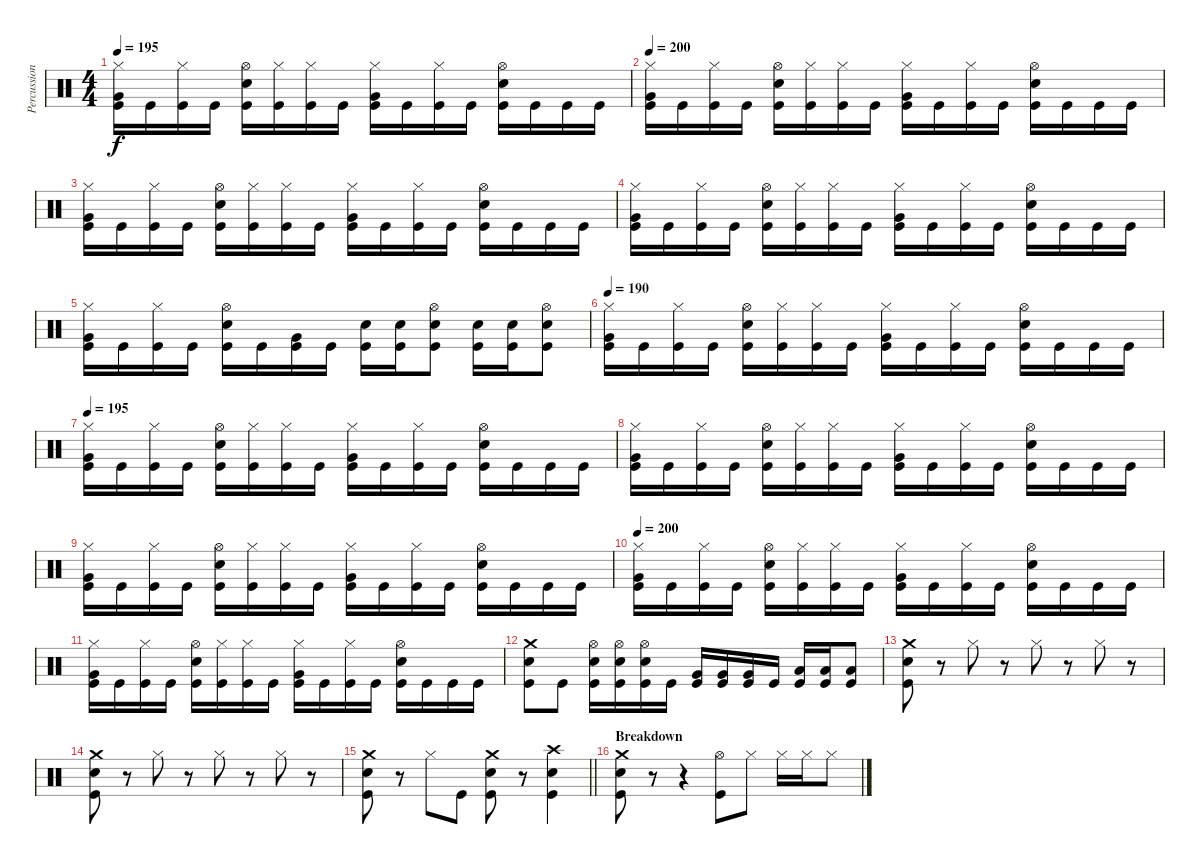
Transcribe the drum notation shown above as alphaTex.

\track ("Percussion" "Percussion") {instrument percussion}
\staff {score}
\articulation defaults
\ts (4 4)
\tempo 195
\clef neutral
\ks c
("Kick (hit)" "Very Low Tom (hit)" "Hi-Hat (closed)").16{dy f} "Kick (hit)".16 ("Kick (hit)" "Hi-Hat (closed)").16 "Kick (hit)".16 ("Kick (hit)" "Snare (hit) 2" "Hi-Hat (open)").16 ("Kick (hit)" "Hi-Hat (closed)").16 ("Kick (hit)" "Hi-Hat (closed)").16 "Kick (hit)".16 ("Kick (hit)" "Very Low Tom (hit)" "Hi-Hat (closed)").16 "Kick (hit)".16 ("Kick (hit)" "Hi-Hat (closed)").16 "Kick (hit)".16 ("Kick (hit)" "Snare (hit) 2" "Hi-Hat (open)").16 "Kick (hit)".16 "Kick (hit)".16 "Kick (hit)".16 |
\tempo 200
("Kick (hit)" "Very Low Tom (hit)" "Hi-Hat (closed)").16 "Kick (hit)".16 ("Kick (hit)" "Hi-Hat (closed)").16 "Kick (hit)".16 ("Kick (hit)" "Snare (hit) 2" "Hi-Hat (open)").16 ("Kick (hit)" "Hi-Hat (closed)").16 ("Kick (hit)" "Hi-Hat (closed)").16 "Kick (hit)".16 ("Kick (hit)" "Very Low Tom (hit)" "Hi-Hat (closed)").16 "Kick (hit)".16 ("Kick (hit)" "Hi-Hat (closed)").16 "Kick (hit)".16 ("Kick (hit)" "Snare (hit) 2" "Hi-Hat (open)").16 "Kick (hit)".16 "Kick (hit)".16 "Kick (hit)".16 |
("Kick (hit)" "Very Low Tom (hit)" "Hi-Hat (closed)").16 "Kick (hit)".16 ("Kick (hit)" "Hi-Hat (closed)").16 "Kick (hit)".16 ("Kick (hit)" "Snare (hit) 2" "Hi-Hat (open)").16 ("Kick (hit)" "Hi-Hat (closed)").16 ("Kick (hit)" "Hi-Hat (closed)").16 "Kick (hit)".16 ("Kick (hit)" "Very Low Tom (hit)" "Hi-Hat (closed)").16 "Kick (hit)".16 ("Kick (hit)" "Hi-Hat (closed)").16 "Kick (hit)".16 ("Kick (hit)" "Snare (hit) 2" "Hi-Hat (open)").16 "Kick (hit)".16 "Kick (hit)".16 "Kick (hit)".16 |
("Kick (hit)" "Very Low Tom (hit)" "Hi-Hat (closed)").16 "Kick (hit)".16 ("Kick (hit)" "Hi-Hat (closed)").16 "Kick (hit)".16 ("Kick (hit)" "Snare (hit) 2" "Hi-Hat (open)").16 ("Kick (hit)" "Hi-Hat (closed)").16 ("Kick (hit)" "Hi-Hat (closed)").16 "Kick (hit)".16 ("Kick (hit)" "Very Low Tom (hit)" "Hi-Hat (closed)").16 "Kick (hit)".16 ("Kick (hit)" "Hi-Hat (closed)").16 "Kick (hit)".16 ("Kick (hit)" "Snare (hit) 2" "Hi-Hat (open)").16 "Kick (hit)".16 "Kick (hit)".16 "Kick (hit)".16 |
("Kick (hit)" "Very Low Tom (hit)" "Hi-Hat (closed)").16 "Kick (hit)".16 ("Kick (hit)" "Hi-Hat (closed)").16 "Kick (hit)".16 ("Kick (hit)" "Snare (hit) 2" "Hi-Hat (open)").16 "Kick (hit)".16 ("Kick (hit)" "Very Low Tom (hit)").16 "Kick (hit)".16 ("Kick (hit)" "Snare (hit) 2").16 ("Kick (hit)" "Snare (hit) 2").16 ("Kick (hit)" "Snare (hit) 2" "Hi-Hat (open)").8 ("Kick (hit)" "Snare (hit) 2").16 ("Kick (hit)" "Snare (hit) 2").16 ("Kick (hit)" "Snare (hit) 2" "Hi-Hat (open)").8 |
\tempo 190
("Kick (hit)" "Very Low Tom (hit)" "Hi-Hat (closed)").16 "Kick (hit)".16 ("Kick (hit)" "Hi-Hat (closed)").16 "Kick (hit)".16 ("Kick (hit)" "Snare (hit) 2" "Hi-Hat (open)").16 ("Kick (hit)" "Hi-Hat (closed)").16 ("Kick (hit)" "Hi-Hat (closed)").16 "Kick (hit)".16 ("Kick (hit)" "Very Low Tom (hit)" "Hi-Hat (closed)").16 "Kick (hit)".16 ("Kick (hit)" "Hi-Hat (closed)").16 "Kick (hit)".16 ("Kick (hit)" "Snare (hit) 2" "Hi-Hat (open)").16 "Kick (hit)".16 "Kick (hit)".16 "Kick (hit)".16 |
\tempo 195
("Kick (hit)" "Very Low Tom (hit)" "Hi-Hat (closed)").16 "Kick (hit)".16 ("Kick (hit)" "Hi-Hat (closed)").16 "Kick (hit)".16 ("Kick (hit)" "Snare (hit) 2" "Hi-Hat (open)").16 ("Kick (hit)" "Hi-Hat (closed)").16 ("Kick (hit)" "Hi-Hat (closed)").16 "Kick (hit)".16 ("Kick (hit)" "Very Low Tom (hit)" "Hi-Hat (closed)").16 "Kick (hit)".16 ("Kick (hit)" "Hi-Hat (closed)").16 "Kick (hit)".16 ("Kick (hit)" "Snare (hit) 2" "Hi-Hat (open)").16 "Kick (hit)".16 "Kick (hit)".16 "Kick (hit)".16 |
("Kick (hit)" "Very Low Tom (hit)" "Hi-Hat (closed)").16 "Kick (hit)".16 ("Kick (hit)" "Hi-Hat (closed)").16 "Kick (hit)".16 ("Kick (hit)" "Snare (hit) 2" "Hi-Hat (open)").16 ("Kick (hit)" "Hi-Hat (closed)").16 ("Kick (hit)" "Hi-Hat (closed)").16 "Kick (hit)".16 ("Kick (hit)" "Very Low Tom (hit)" "Hi-Hat (closed)").16 "Kick (hit)".16 ("Kick (hit)" "Hi-Hat (closed)").16 "Kick (hit)".16 ("Kick (hit)" "Snare (hit) 2" "Hi-Hat (open)").16 "Kick (hit)".16 "Kick (hit)".16 "Kick (hit)".16 |
("Kick (hit)" "Very Low Tom (hit)" "Hi-Hat (closed)").16 "Kick (hit)".16 ("Kick (hit)" "Hi-Hat (closed)").16 "Kick (hit)".16 ("Kick (hit)" "Snare (hit) 2" "Hi-Hat (open)").16 ("Kick (hit)" "Hi-Hat (closed)").16 ("Kick (hit)" "Hi-Hat (closed)").16 "Kick (hit)".16 ("Kick (hit)" "Very Low Tom (hit)" "Hi-Hat (closed)").16 "Kick (hit)".16 ("Kick (hit)" "Hi-Hat (closed)").16 "Kick (hit)".16 ("Kick (hit)" "Snare (hit) 2" "Hi-Hat (open)").16 "Kick (hit)".16 "Kick (hit)".16 "Kick (hit)".16 |
\tempo 200
("Kick (hit)" "Very Low Tom (hit)" "Hi-Hat (closed)").16 "Kick (hit)".16 ("Kick (hit)" "Hi-Hat (closed)").16 "Kick (hit)".16 ("Kick (hit)" "Snare (hit) 2" "Hi-Hat (open)").16 ("Kick (hit)" "Hi-Hat (closed)").16 ("Kick (hit)" "Hi-Hat (closed)").16 "Kick (hit)".16 ("Kick (hit)" "Very Low Tom (hit)" "Hi-Hat (closed)").16 "Kick (hit)".16 ("Kick (hit)" "Hi-Hat (closed)").16 "Kick (hit)".16 ("Kick (hit)" "Snare (hit) 2" "Hi-Hat (open)").16 "Kick (hit)".16 "Kick (hit)".16 "Kick (hit)".16 |
("Kick (hit)" "Very Low Tom (hit)" "Hi-Hat (closed)").16 "Kick (hit)".16 ("Kick (hit)" "Hi-Hat (closed)").16 "Kick (hit)".16 ("Kick (hit)" "Snare (hit) 2" "Hi-Hat (open)").16 ("Kick (hit)" "Hi-Hat (closed)").16 ("Kick (hit)" "Hi-Hat (closed)").16 "Kick (hit)".16 ("Kick (hit)" "Very Low Tom (hit)" "Hi-Hat (closed)").16 "Kick (hit)".16 ("Kick (hit)" "Hi-Hat (closed)").16 "Kick (hit)".16 ("Kick (hit)" "Snare (hit) 2" "Hi-Hat (open)").16 "Kick (hit)".16 "Kick (hit)".16 "Kick (hit)".16 |
("Kick (hit)" "Crash medium (hit)" "Snare (hit) 2").8 "Kick (hit)".8 ("Kick (hit)" "Snare (hit) 2" "Hi-Hat (open)").16 ("Kick (hit)" "Snare (hit) 2" "Hi-Hat (open)").16 ("Kick (hit)" "Snare (hit) 2" "Hi-Hat (open)").16 "Kick (hit)".16 ("Kick (hit)" "Very Low Tom (hit)").16 ("Kick (hit)" "Very Low Tom (hit)").16 ("Kick (hit)" "Very Low Tom (hit)").16 "Kick (hit)".16 ("Kick (hit)" "Low Floor Tom (hit)").16 ("Kick (hit)" "Low Floor Tom (hit)").16 ("Kick (hit)" "Low Floor Tom (hit)").8 |
("Snare (hit) 2" "Crash medium (hit)" "Kick (hit)").8 r.8 "Hi-Hat (closed)".8 r.8 "Hi-Hat (closed)".8 r.8 "Hi-Hat (closed)".8 r.8 |
("Snare (hit) 2" "Crash medium (hit)" "Kick (hit)").8 r.8 "Hi-Hat (closed)".8 r.8 "Hi-Hat (closed)".8 r.8 "Hi-Hat (closed)".8 r.8 |
\barLineRight lightlight
("Snare (hit) 2" "Crash medium (hit)" "Kick (hit)").8 r.8 "Hi-Hat (closed)".8 "Kick (hit)".8 ("Snare (hit) 2" "Crash medium (hit)" "Kick (hit)").8 r.8 ("Snare (hit) 2" "Crash high (hit)" "Kick (hit)").4 |
\section ("" "Breakdown")
("Snare (hit) 2" "Crash medium (hit)" "Kick (hit)").8 r.8 r.4 ("Kick (hit)" "Hi-Hat (open)").8 "Hi-Hat (closed)".8 "Hi-Hat (closed)".16 "Hi-Hat (closed)".16 "Hi-Hat (closed)".8
